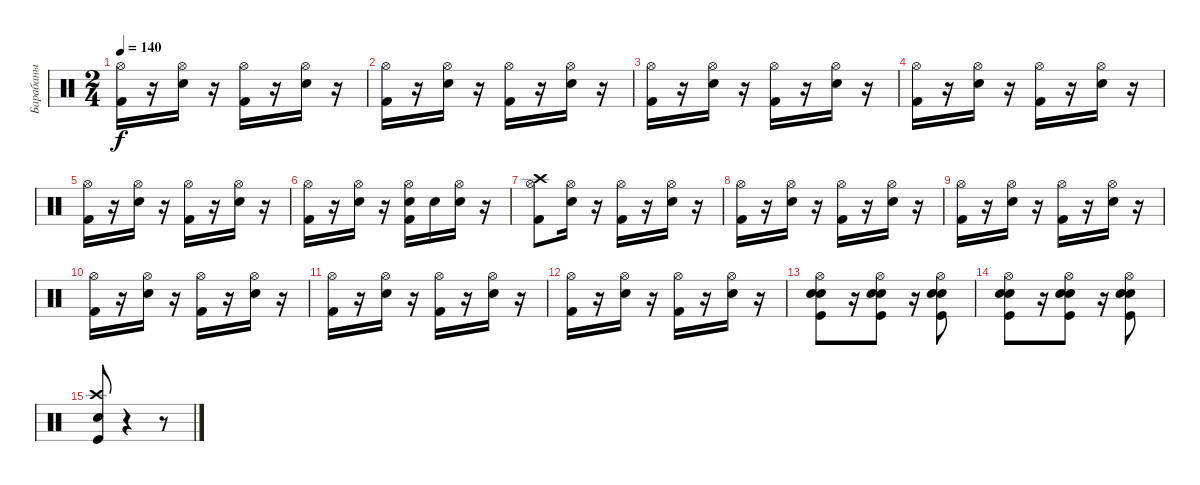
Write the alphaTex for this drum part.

\track ("Барабаны" "Барабаны") {instrument percussion}
\staff {score}
\articulation defaults
\ts (2 4)
\tempo 140
\clef neutral
\ks c
("Kick (hit) 2" "Hi-Hat (open)").16{dy f} r.16 ("Electric Snare (hit)" "Hi-Hat (open)").16 r.16 ("Kick (hit) 2" "Hi-Hat (open)").16 r.16 ("Electric Snare (hit)" "Hi-Hat (open)").16 r.16 |
("Kick (hit) 2" "Hi-Hat (open)").16 r.16 ("Electric Snare (hit)" "Hi-Hat (open)").16 r.16 ("Kick (hit) 2" "Hi-Hat (open)").16 r.16 ("Electric Snare (hit)" "Hi-Hat (open)").16 r.16 |
("Kick (hit) 2" "Hi-Hat (open)").16 r.16 ("Electric Snare (hit)" "Hi-Hat (open)").16 r.16 ("Kick (hit) 2" "Hi-Hat (open)").16 r.16 ("Electric Snare (hit)" "Hi-Hat (open)").16 r.16 |
("Kick (hit) 2" "Hi-Hat (open)").16 r.16 ("Electric Snare (hit)" "Hi-Hat (open)").16 r.16 ("Kick (hit) 2" "Hi-Hat (open)").16 r.16 ("Electric Snare (hit)" "Hi-Hat (open)").16 r.16 |
("Kick (hit) 2" "Hi-Hat (open)").16 r.16 ("Electric Snare (hit)" "Hi-Hat (open)").16 r.16 ("Kick (hit) 2" "Hi-Hat (open)").16 r.16 ("Electric Snare (hit)" "Hi-Hat (open)").16 r.16 |
("Kick (hit) 2" "Hi-Hat (open)").16 r.16 ("Electric Snare (hit)" "Hi-Hat (open)").16 r.16 ("Kick (hit) 2" "Hi-Hat (open)" "Electric Snare (hit)").16 "Electric Snare (hit)".16 ("Hi-Hat (open)" "Electric Snare (hit)").16 r.16 |
("Kick (hit) 2" "Hi-Hat (open)" "Crash high (hit)").8 ("Electric Snare (hit)" "Hi-Hat (open)").16 r.16 ("Kick (hit) 2" "Hi-Hat (open)").16 r.16 ("Electric Snare (hit)" "Hi-Hat (open)").16 r.16 |
("Kick (hit) 2" "Hi-Hat (open)").16 r.16 ("Electric Snare (hit)" "Hi-Hat (open)").16 r.16 ("Kick (hit) 2" "Hi-Hat (open)").16 r.16 ("Electric Snare (hit)" "Hi-Hat (open)").16 r.16 |
("Kick (hit) 2" "Hi-Hat (open)").16 r.16 ("Electric Snare (hit)" "Hi-Hat (open)").16 r.16 ("Kick (hit) 2" "Hi-Hat (open)").16 r.16 ("Electric Snare (hit)" "Hi-Hat (open)").16 r.16 |
("Kick (hit) 2" "Hi-Hat (open)").16 r.16 ("Electric Snare (hit)" "Hi-Hat (open)").16 r.16 ("Kick (hit) 2" "Hi-Hat (open)").16 r.16 ("Electric Snare (hit)" "Hi-Hat (open)").16 r.16 |
("Kick (hit) 2" "Hi-Hat (open)").16 r.16 ("Electric Snare (hit)" "Hi-Hat (open)").16 r.16 ("Kick (hit) 2" "Hi-Hat (open)").16 r.16 ("Electric Snare (hit)" "Hi-Hat (open)").16 r.16 |
("Kick (hit) 2" "Hi-Hat (open)").16 r.16 ("Electric Snare (hit)" "Hi-Hat (open)").16 r.16 ("Kick (hit) 2" "Hi-Hat (open)").16 r.16 ("Electric Snare (hit)" "Hi-Hat (open)").16 r.16 |
("Electric Snare (hit)" "Electric Snare (hit)" "Hi-Hat (open)" "Kick (hit)").8 r.16 ("Electric Snare (hit)" "Electric Snare (hit)" "Hi-Hat (open)" "Kick (hit)").8 r.16 ("Electric Snare (hit)" "Electric Snare (hit)" "Hi-Hat (open)" "Kick (hit)").8 |
("Electric Snare (hit)" "Electric Snare (hit)" "Hi-Hat (open)" "Kick (hit)").8 r.16 ("Electric Snare (hit)" "Electric Snare (hit)" "Hi-Hat (open)" "Kick (hit)").8 r.16 ("Electric Snare (hit)" "Electric Snare (hit)" "Hi-Hat (open)" "Kick (hit)").8 |
("Kick (hit)" "Electric Snare (hit)" "Crash high (hit)").8 r.4 r.8
